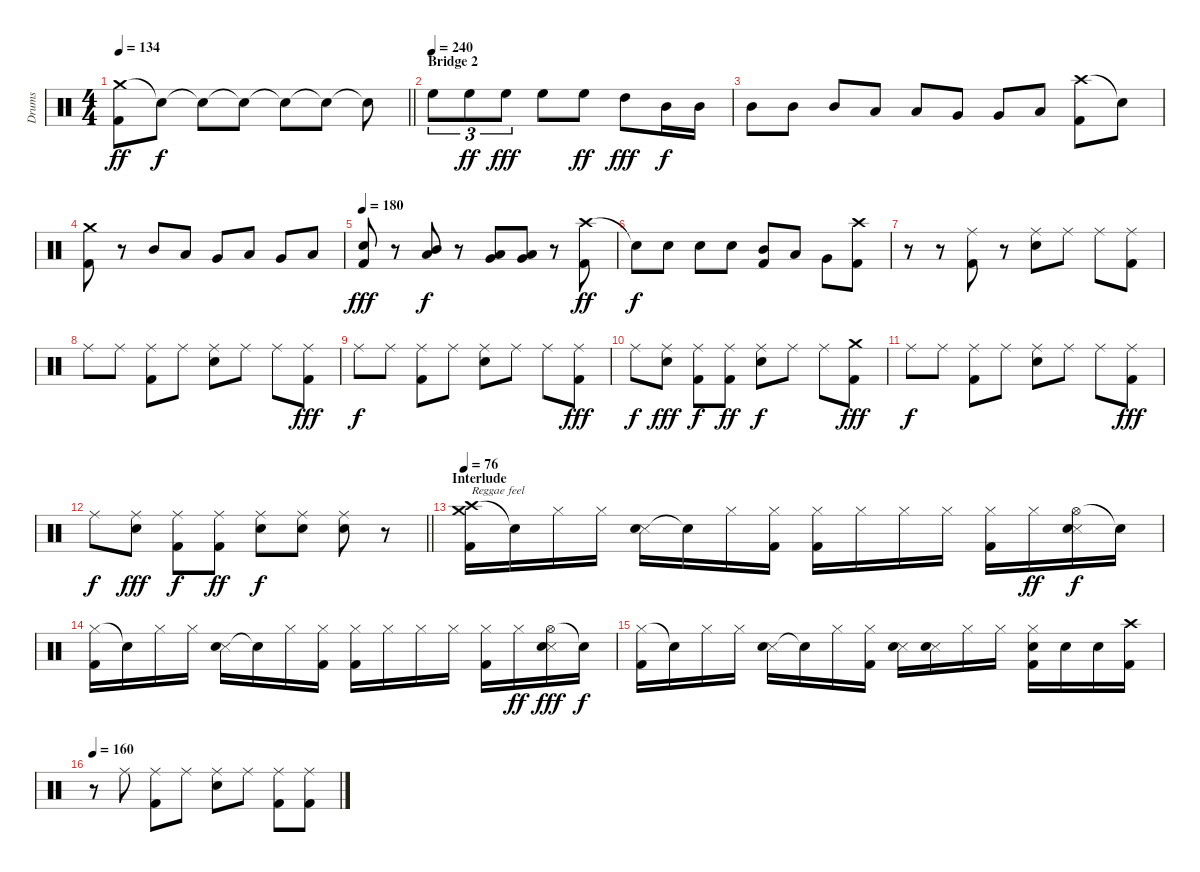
\track ("Drums" "Drums") {instrument percussion}
\staff {score}
\articulation defaults
\ts (4 4)
\tempo 134
\clef neutral
\barLineRight lightlight
\ks c
("Crash medium (hit)" "Kick (hit) 2").8{dy ff} "Snare (hit)"{t}.8{dy f} "Snare (hit)"{t}.8 "Snare (hit)"{t}.8 "Snare (hit)"{t}.8 "Snare (hit)"{t}.8 "Snare (hit)"{t}.8 |
\section ("" "Bridge 2")
\tempo (240)
"High Floor Tom (hit)".8{tu (3 2)} "High Floor Tom (hit)".8{tu (3 2) dy ff} "High Floor Tom (hit)".8{tu (3 2) dy fff} "High Floor Tom (hit)".8 "High Floor Tom (hit)".8{dy ff} "High Tom (hit)".8{dy fff} "Mid Tom (hit)".16{dy f} "Mid Tom (hit)".16 |
"Mid Tom (hit)".8 "Mid Tom (hit)".8 "Mid Tom (hit)".8 "Low Tom (hit)".8 "Low Tom (hit)".8 "Very Low Tom (hit)".8 "Very Low Tom (hit)".8 "Low Floor Tom (hit)".8 ("Crash high (hit)" "Kick (hit) 2").8 "Snare (hit)"{t}.8 |
("Crash medium (hit)" "Kick (hit) 2").8 r.8 "Mid Tom (hit)".8 "Low Tom (hit)".8 "Very Low Tom (hit)".8 "Low Tom (hit)".8 "Very Low Tom (hit)".8 "Low Floor Tom (hit)".8 |
\tempo 180
("Snare (hit) 2" "Kick (hit) 2").8{dy fff} r.8 ("Mid Tom (hit)" "Low Tom (hit)").8{dy f} r.8 ("Low Tom (hit)" "Very Low Tom (hit)").8 ("Low Tom (hit)" "Very Low Tom (hit)").8 r.8 ("Crash high (hit)" "Kick (hit) 2").8{dy ff} |
"Snare (hit)"{t}.8{dy f} "Snare (hit) 2".8 "Snare (hit) 2".8 "Snare (hit) 2".8 ("Mid Tom (hit)" "Kick (hit) 2").8 "Low Tom (hit)".8 "Very Low Tom (hit)".8 ("Crash high (hit)" "Kick (hit) 2").8 |
r.8 r.8 ("Ride (middle)" "Kick (hit) 2").8 r.8 ("Ride (middle)" "Snare (hit) 2").8 "Ride (middle)".8 "Ride (middle)".8 ("Ride (middle)" "Kick (hit) 2").8 |
"Ride (middle)".8 "Ride (middle)".8 ("Ride (middle)" "Kick (hit) 2").8 "Ride (middle)".8 ("Ride (middle)" "Snare (hit) 2").8 "Ride (middle)".8 "Ride (middle)".8 ("Ride (middle)" "Kick (hit) 2").8{dy fff} |
"Ride (middle)".8{dy f} "Ride (middle)".8 ("Ride (middle)" "Kick (hit) 2").8 "Ride (middle)".8 ("Ride (middle)" "Snare (hit) 2").8 "Ride (middle)".8 "Ride (middle)".8 ("Ride (middle)" "Kick (hit) 2").8{dy fff} |
"Ride (middle)".8{dy f} ("Ride (middle)" "Snare (hit) 2").8{dy fff} ("Ride (middle)" "Kick (hit) 2").8{dy f} ("Ride (middle)" "Kick (hit) 2").8{dy ff} ("Ride (middle)" "Snare (hit) 2").8{dy f} "Ride (middle)".8 "Ride (middle)".8 ("Crash medium (hit)" "Kick (hit) 2").8{dy fff} |
"Ride (middle)".8{dy f} "Ride (middle)".8 ("Ride (middle)" "Kick (hit) 2").8 "Ride (middle)".8 ("Ride (middle)" "Snare (hit) 2").8 "Ride (middle)".8 "Ride (middle)".8 ("Ride (middle)" "Kick (hit) 2").8{dy fff} |
\barLineRight lightlight "Ride (middle)".8{dy f}
("Ride (middle)" "Snare (hit) 2").8{dy fff} ("Ride (middle)" "Kick (hit) 2").8{dy f} ("Ride (middle)" "Kick (hit) 2").8{dy ff} ("Ride (middle)" "Snare (hit) 2").8{dy f} ("Ride (middle)" "Snare (hit) 2").8 ("Ride (middle)" "Snare (hit) 2").8 r.8 |
\section ("" "Interlude")
\tempo 76
("Crash high (hit)" "Crash medium (hit)" "Kick (hit) 2").16{txt "Reggae feel"} "Snare (hit)"{t}.16 "Hi-Hat (closed)".16 "Hi-Hat (closed)".16 ("Snare (side stick) 3" "Electric Snare (hit)").16 "Snare (hit)"{t}.16 "Hi-Hat (closed)".16 ("Hi-Hat (closed)" "Kick (hit) 2").16 ("Hi-Hat (closed)" "Kick (hit) 2").16 "Hi-Hat (closed)".16 "Hi-Hat (closed)".16 "Hi-Hat (closed)".16 ("Hi-Hat (closed)" "Kick (hit) 2").16 "Hi-Hat (closed)".16{dy ff} ("Hi-Hat (open)" "Snare (side stick) 3" "Electric Snare (hit)").16{dy f} "Snare (hit)"{t}.16 |
("Hi-Hat (closed)" "Kick (hit) 2").16 "Snare (hit)"{t}.16 "Hi-Hat (closed)".16 "Hi-Hat (closed)".16 ("Snare (side stick) 3" "Electric Snare (hit)").16 "Snare (hit)"{t}.16 "Hi-Hat (closed)".16 ("Hi-Hat (closed)" "Kick (hit) 2").16 ("Hi-Hat (closed)" "Kick (hit) 2").16 "Hi-Hat (closed)".16 "Hi-Hat (closed)".16 "Hi-Hat (closed)".16 ("Hi-Hat (closed)" "Kick (hit) 2").16 "Hi-Hat (closed)".16{dy ff} ("Hi-Hat (open)" "Snare (side stick) 3" "Electric Snare (hit)").16{dy fff} "Snare (hit)"{t}.16{dy f} |
("Hi-Hat (closed)" "Kick (hit) 2").16 "Snare (hit)"{t}.16 "Hi-Hat (closed)".16 "Hi-Hat (closed)".16 ("Snare (side stick) 3" "Electric Snare (hit)").16 "Snare (hit)"{t}.16 "Hi-Hat (closed)".16 ("Hi-Hat (closed)" "Kick (hit) 2").16 ("Snare (side stick) 3" "Electric Snare (hit)").16 ("Snare (side stick) 3" "Electric Snare (hit)").16 "Hi-Hat (closed)".16 "Hi-Hat (closed)".16 ("Hi-Hat (closed)" "Snare (hit) 2" "Kick (hit) 2").16 "Snare (hit) 2".16 "Snare (hit) 2".16 ("Crash high (hit)" "Kick (hit) 2").16 |
\tempo 160
r.8 "Ride (middle)".8 ("Ride (middle)" "Kick (hit) 2").8 "Ride (middle)".8 ("Ride (middle)" "Snare (hit) 2").8 "Ride (middle)".8 ("Ride (middle)" "Kick (hit) 2").8 ("Ride (middle)" "Kick (hit) 2").8
